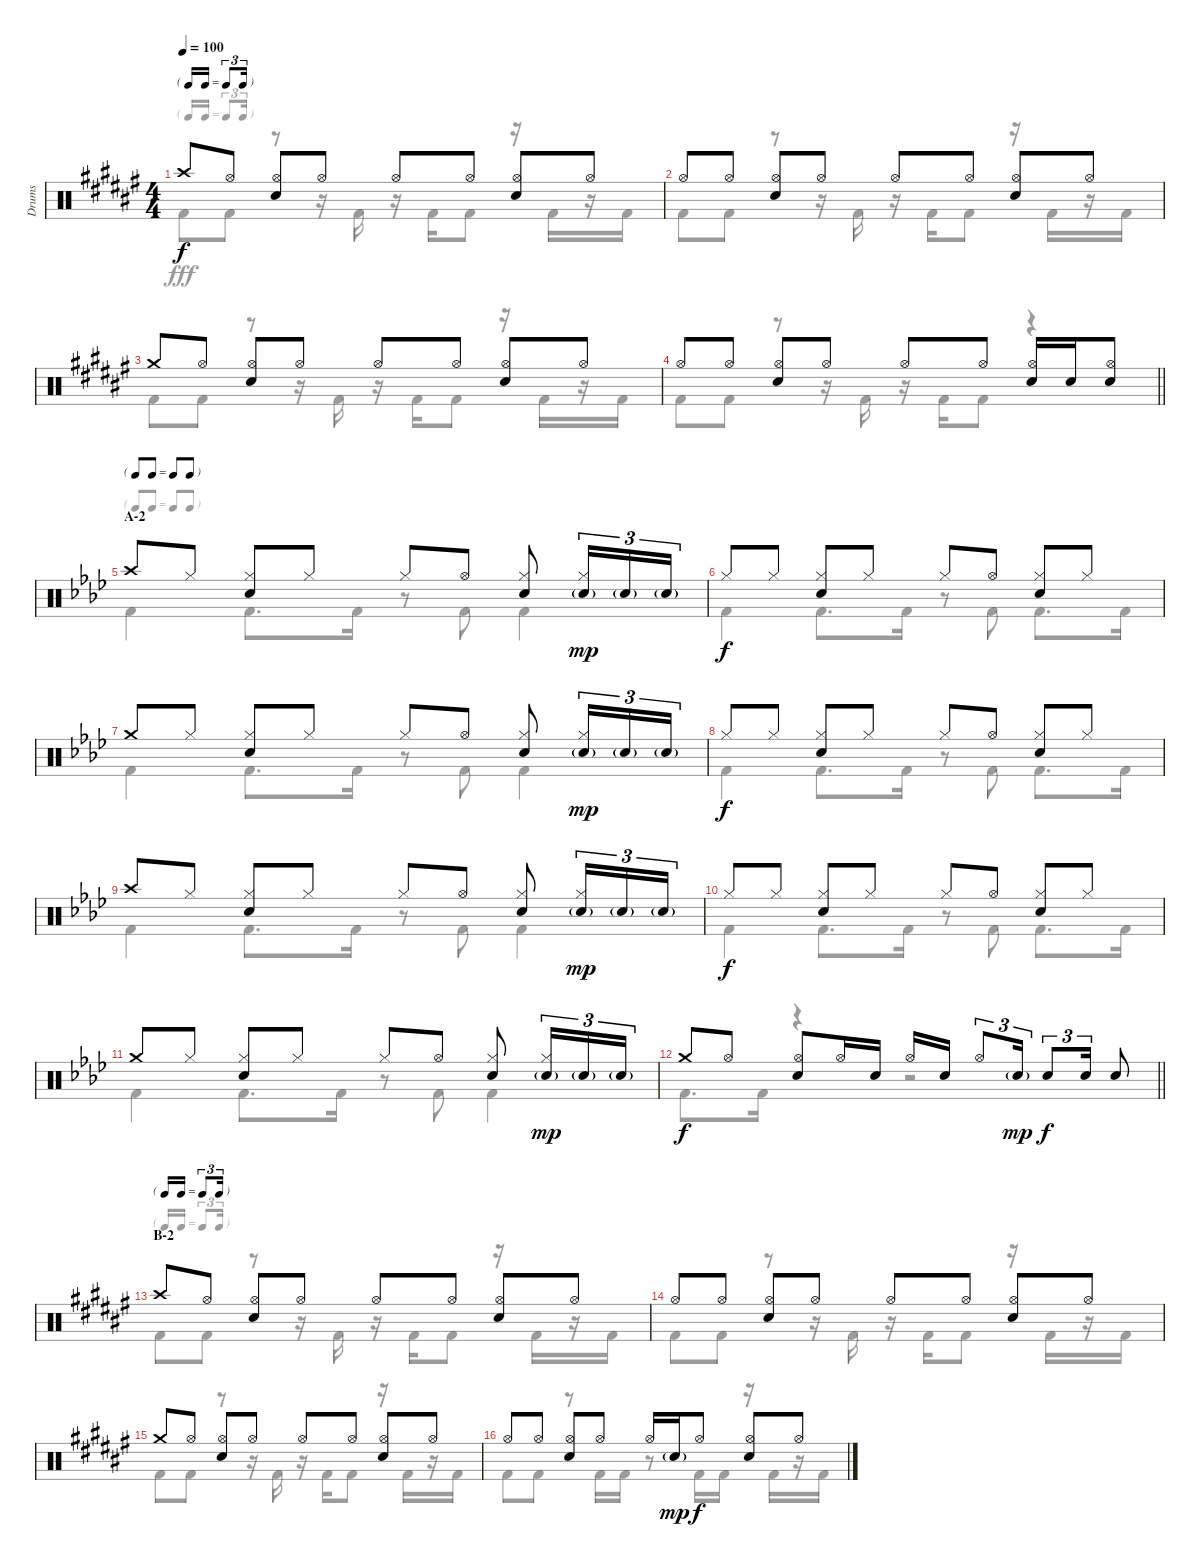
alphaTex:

\track ("Drums" "Drums") {instrument percussion}
\staff {score}
\articulation defaults
\voice
\ts (4 4)
\tf triplet16th
\tempo 100
\clef neutral
\ks f# "Crash high (hit)".8{dy f} "Hi-Hat (open)".8
("Hi-Hat (open)" "Snare (hit) 2").8 "Hi-Hat (open)".8 "Hi-Hat (open)".8 "Hi-Hat (open)".8 ("Hi-Hat (open)" "Snare (hit) 2").8 "Hi-Hat (open)".8 |
"Hi-Hat (open)".8 "Hi-Hat (open)".8 ("Hi-Hat (open)" "Snare (hit) 2").8 "Hi-Hat (open)".8 "Hi-Hat (open)".8 "Hi-Hat (open)".8 ("Hi-Hat (open)" "Snare (hit) 2").8 "Hi-Hat (open)".8 |
"Crash medium (hit)".8 "Hi-Hat (open)".8 ("Hi-Hat (open)" "Snare (hit) 2").8 "Hi-Hat (open)".8 "Hi-Hat (open)".8 "Hi-Hat (open)".8 ("Hi-Hat (open)" "Snare (hit) 2").8 "Hi-Hat (open)".8 |
\barLineRight lightlight "Hi-Hat (open)".8 "Hi-Hat (open)".8
("Hi-Hat (open)" "Snare (hit) 2").8 "Hi-Hat (open)".8 "Hi-Hat (open)".8 "Hi-Hat (open)".8 ("Hi-Hat (open)" "Snare (hit) 2").16 "Snare (hit) 2".16 ("Hi-Hat (open)" "Snare (hit) 2").8 |
\tf none
\section ("" "A-2")
\ks fminor "Crash high (hit)".8 "Hi-Hat (closed)".8
("Hi-Hat (closed)" "Snare (hit) 2").8 "Hi-Hat (closed)".8 "Hi-Hat (closed)".8 "Hi-Hat (open)".8 ("Hi-Hat (closed)" "Snare (hit) 2").8 ("Hi-Hat (closed)" "Snare (hit) 2"{g}).16{tu (3 2) dy mp} "Snare (hit) 2"{g}.16{tu (3 2)} "Snare (hit) 2"{g}.16{tu (3 2)} |
"Hi-Hat (closed)".8{dy f} "Hi-Hat (closed)".8 ("Hi-Hat (closed)" "Snare (hit) 2").8 "Hi-Hat (closed)".8 "Hi-Hat (closed)".8 "Hi-Hat (open)".8 ("Hi-Hat (closed)" "Snare (hit) 2").8 "Hi-Hat (closed)".8 |
"Crash medium (hit)".8 "Hi-Hat (closed)".8 ("Hi-Hat (closed)" "Snare (hit) 2").8 "Hi-Hat (closed)".8 "Hi-Hat (closed)".8 "Hi-Hat (open)".8 ("Hi-Hat (closed)" "Snare (hit) 2").8 ("Hi-Hat (closed)" "Snare (hit) 2"{g}).16{tu (3 2) dy mp} "Snare (hit) 2"{g}.16{tu (3 2)} "Snare (hit) 2"{g}.16{tu (3 2)} |
"Hi-Hat (closed)".8{dy f} "Hi-Hat (closed)".8 ("Hi-Hat (closed)" "Snare (hit) 2").8 "Hi-Hat (closed)".8 "Hi-Hat (closed)".8 "Hi-Hat (open)".8 ("Hi-Hat (closed)" "Snare (hit) 2").8 "Hi-Hat (closed)".8 |
"Crash high (hit)".8 "Hi-Hat (closed)".8 ("Hi-Hat (closed)" "Snare (hit) 2").8 "Hi-Hat (closed)".8 "Hi-Hat (closed)".8 "Hi-Hat (open)".8 ("Hi-Hat (closed)" "Snare (hit) 2").8 ("Hi-Hat (closed)" "Snare (hit) 2"{g}).16{tu (3 2) dy mp} "Snare (hit) 2"{g}.16{tu (3 2)} "Snare (hit) 2"{g}.16{tu (3 2)} |
"Hi-Hat (closed)".8{dy f} "Hi-Hat (closed)".8 ("Hi-Hat (closed)" "Snare (hit) 2").8 "Hi-Hat (closed)".8 "Hi-Hat (closed)".8 "Hi-Hat (open)".8 ("Hi-Hat (closed)" "Snare (hit) 2").8 "Hi-Hat (closed)".8 |
"Crash medium (hit)".8 "Hi-Hat (closed)".8 ("Hi-Hat (closed)" "Snare (hit) 2").8 "Hi-Hat (closed)".8 "Hi-Hat (closed)".8 "Hi-Hat (open)".8 ("Hi-Hat (closed)" "Snare (hit) 2").8 ("Hi-Hat (closed)" "Snare (hit) 2"{g}).16{tu (3 2) dy mp} "Snare (hit) 2"{g}.16{tu (3 2)} "Snare (hit) 2"{g}.16{tu (3 2)} |
\barLineRight lightlight "Crash medium (hit)".8{dy f} "Hi-Hat (open)".8
("Hi-Hat (open)" "Snare (hit) 2").8 "Hi-Hat (open)".16 "Snare (hit) 2".16 "Hi-Hat (open)".16 "Snare (hit) 2".16 "Hi-Hat (open)".8{tu (3 2)} "Snare (hit) 2"{g}.16{tu (3 2) dy mp} "Snare (hit) 2".8{tu (3 2) dy f} "Snare (hit) 2".16{tu (3 2)} "Snare (hit) 2".8 |
\tf triplet16th
\section ("" "B-2")
\ks f# "Crash high (hit)".8 "Hi-Hat (open)".8
("Hi-Hat (open)" "Snare (hit) 2").8 "Hi-Hat (open)".8 "Hi-Hat (open)".8 "Hi-Hat (open)".8 ("Hi-Hat (open)" "Snare (hit) 2").8 "Hi-Hat (open)".8 |
"Hi-Hat (open)".8 "Hi-Hat (open)".8 ("Hi-Hat (open)" "Snare (hit) 2").8 "Hi-Hat (open)".8 "Hi-Hat (open)".8 "Hi-Hat (open)".8 ("Hi-Hat (open)" "Snare (hit) 2").8 "Hi-Hat (open)".8 |
"Crash medium (hit)".8 "Hi-Hat (open)".8 ("Hi-Hat (open)" "Snare (hit) 2").8 "Hi-Hat (open)".8 "Hi-Hat (open)".8 "Hi-Hat (open)".8 ("Hi-Hat (open)" "Snare (hit) 2").8 "Hi-Hat (open)".8 |
"Hi-Hat (open)".8 "Hi-Hat (open)".8 ("Hi-Hat (open)" "Snare (hit) 2").8 "Hi-Hat (open)".8 "Hi-Hat (open)".16 "Snare (hit) 2"{g}.16{dy mp} "Hi-Hat (open)".8{dy f} ("Hi-Hat (open)" "Snare (hit) 2").8 "Hi-Hat (open)".8
\voice
\clef neutral
\ottava regular
\simile none
\ks f# "Kick (hit) 2".8{dy fff} "Kick (hit) 2".8
r.8 r.16 "Kick (hit) 2".16 r.16 "Kick (hit) 2".16 "Kick (hit) 2".8 r.16 "Kick (hit) 2".16 r.16 "Kick (hit) 2".16 |
"Kick (hit) 2".8 "Kick (hit) 2".8 r.8 r.16 "Kick (hit) 2".16 r.16 "Kick (hit) 2".16 "Kick (hit) 2".8 r.16 "Kick (hit) 2".16 r.16 "Kick (hit) 2".16 |
"Kick (hit) 2".8 "Kick (hit) 2".8 r.8 r.16 "Kick (hit) 2".16 r.16 "Kick (hit) 2".16 "Kick (hit) 2".8 r.16 "Kick (hit) 2".16 r.16 "Kick (hit) 2".16 |
\barLineRight lightlight "Kick (hit) 2".8 "Kick (hit) 2".8
r.8 r.16 "Kick (hit) 2".16 r.16 "Kick (hit) 2".16 "Kick (hit) 2".8 r.4 |
\ks fminor "Kick (hit) 2".4 "Kick (hit) 2".8{d} "Kick (hit) 2".16
r.8 "Kick (hit) 2".8 "Kick (hit) 2".4 |
"Kick (hit) 2".4 "Kick (hit) 2".8{d} "Kick (hit) 2".16 r.8 "Kick (hit) 2".8 "Kick (hit) 2".8{d} "Kick (hit) 2".16 |
"Kick (hit) 2".4 "Kick (hit) 2".8{d} "Kick (hit) 2".16 r.8 "Kick (hit) 2".8 "Kick (hit) 2".4 |
"Kick (hit) 2".4 "Kick (hit) 2".8{d} "Kick (hit) 2".16 r.8 "Kick (hit) 2".8 "Kick (hit) 2".8{d} "Kick (hit) 2".16 |
"Kick (hit) 2".4 "Kick (hit) 2".8{d} "Kick (hit) 2".16 r.8 "Kick (hit) 2".8 "Kick (hit) 2".4 |
"Kick (hit) 2".4 "Kick (hit) 2".8{d} "Kick (hit) 2".16 r.8 "Kick (hit) 2".8 "Kick (hit) 2".8{d} "Kick (hit) 2".16 |
"Kick (hit) 2".4 "Kick (hit) 2".8{d} "Kick (hit) 2".16 r.8 "Kick (hit) 2".8 "Kick (hit) 2".4 |
\barLineRight lightlight "Kick (hit) 2".8{d} "Kick (hit) 2".16
r.4 r.2 |
\ks f# "Kick (hit) 2".8 "Kick (hit) 2".8
r.8 r.16 "Kick (hit) 2".16 r.16 "Kick (hit) 2".16 "Kick (hit) 2".8 r.16 "Kick (hit) 2".16 r.16 "Kick (hit) 2".16 |
"Kick (hit) 2".8 "Kick (hit) 2".8 r.8 r.16 "Kick (hit) 2".16 r.16 "Kick (hit) 2".16 "Kick (hit) 2".8 r.16 "Kick (hit) 2".16 r.16 "Kick (hit) 2".16 |
"Kick (hit) 2".8 "Kick (hit) 2".8 r.8 r.16 "Kick (hit) 2".16 r.16 "Kick (hit) 2".16 "Kick (hit) 2".8 r.16 "Kick (hit) 2".16 r.16 "Kick (hit) 2".16 |
"Kick (hit) 2".8 "Kick (hit) 2".8 r.8 "Kick (hit) 2".16 "Kick (hit) 2".16 r.8 "Kick (hit) 2".16 "Kick (hit) 2".16 r.16 "Kick (hit) 2".16 r.16 "Kick (hit) 2".16
